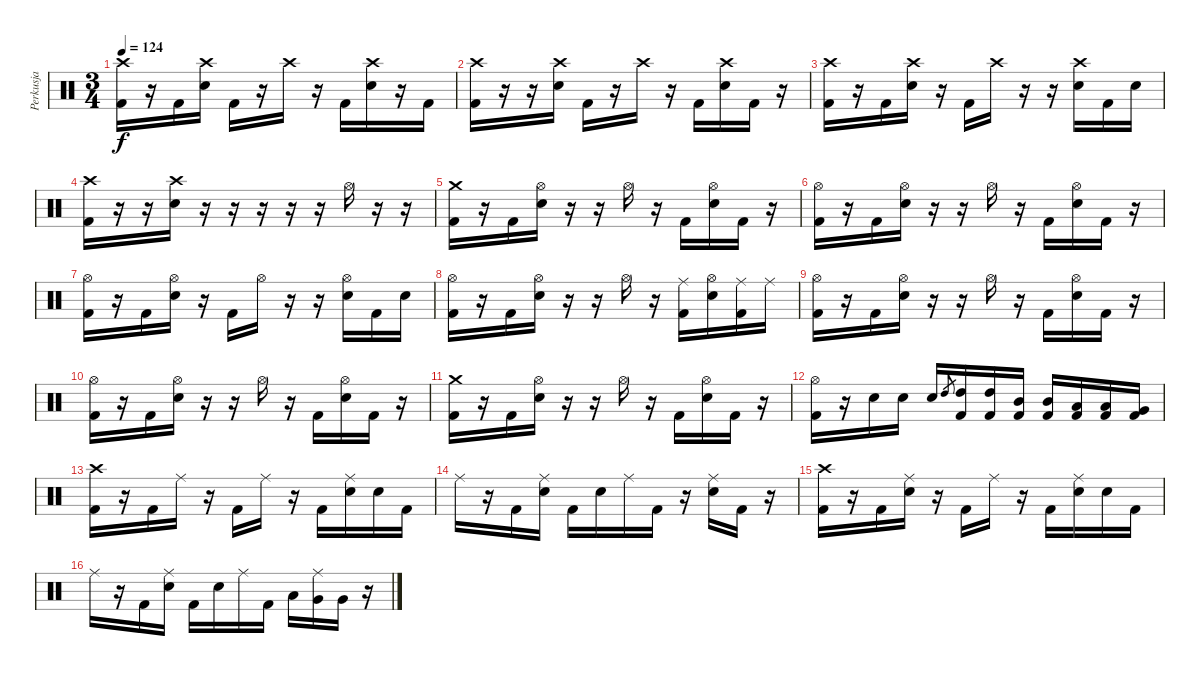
\track ("Perkusja" "Perkusja") {instrument percussion}
\staff {score}
\articulation defaults
\ts (3 4)
\tempo 124
\clef neutral
\ks c
("Kick (hit) 2" "Crash high (hit)").16{dy f} r.16 "Kick (hit) 2".16 ("Crash high (hit)" "Electric Snare (hit)").16 "Kick (hit) 2".16 r.16 "Crash high (hit)".16 r.16 "Kick (hit) 2".16 ("Crash high (hit)" "Electric Snare (hit)").16 r.16 "Kick (hit) 2".16 |
("Kick (hit) 2" "Crash high (hit)").16 r.16 r.16 ("Crash high (hit)" "Electric Snare (hit)").16 "Kick (hit) 2".16 r.16 "Crash high (hit)".16 r.16 "Kick (hit) 2".16 ("Crash high (hit)" "Electric Snare (hit)").16 "Kick (hit) 2".16 r.16 |
("Kick (hit) 2" "Crash high (hit)").16 r.16 "Kick (hit) 2".16 ("Crash high (hit)" "Electric Snare (hit)").16 r.16 "Kick (hit) 2".16 "Crash high (hit)".16 r.16 r.16 ("Crash high (hit)" "Electric Snare (hit)").16 "Kick (hit) 2".16 "Electric Snare (hit)".16 |
("Kick (hit) 2" "Crash high (hit)").16 r.16 r.16 ("Crash high (hit)" "Electric Snare (hit)").16 r.16 r.16 r.16 r.16 r.16 "Hi-Hat (open)".16 r.16 r.16 |
("Kick (hit) 2" "Crash medium (hit)").16 r.16 "Kick (hit) 2".16 ("Hi-Hat (open)" "Electric Snare (hit)").16 r.16 r.16 "Hi-Hat (open)".16 r.16 "Kick (hit) 2".16 ("Hi-Hat (open)" "Electric Snare (hit)").16 "Kick (hit) 2".16 r.16 |
("Hi-Hat (open)" "Kick (hit) 2").16 r.16 "Kick (hit) 2".16 ("Hi-Hat (open)" "Electric Snare (hit)").16 r.16 r.16 "Hi-Hat (open)".16 r.16 "Kick (hit) 2".16 ("Hi-Hat (open)" "Electric Snare (hit)").16 "Kick (hit) 2".16 r.16 |
("Hi-Hat (open)" "Kick (hit) 2").16 r.16 "Kick (hit) 2".16 ("Hi-Hat (open)" "Electric Snare (hit)").16 r.16 "Kick (hit) 2".16 "Hi-Hat (open)".16 r.16 r.16 ("Hi-Hat (open)" "Electric Snare (hit)").16 "Kick (hit) 2".16 "Electric Snare (hit)".16 |
("Hi-Hat (open)" "Kick (hit) 2").16 r.16 "Kick (hit) 2".16 ("Hi-Hat (open)" "Electric Snare (hit)").16 r.16 r.16 "Hi-Hat (open)".16 r.16 ("Ride (middle)" "Kick (hit) 2").16 ("Hi-Hat (open)" "Electric Snare (hit)").16 ("Ride (middle)" "Kick (hit) 2").16 "Ride (middle)".16 |
("Kick (hit) 2" "Hi-Hat (open)").16 r.16 "Kick (hit) 2".16 ("Hi-Hat (open)" "Electric Snare (hit)").16 r.16 r.16 "Hi-Hat (open)".16 r.16 "Kick (hit) 2".16 ("Hi-Hat (open)" "Electric Snare (hit)").16 "Kick (hit) 2".16 r.16 |
("Hi-Hat (open)" "Kick (hit) 2").16 r.16 "Kick (hit) 2".16 ("Hi-Hat (open)" "Electric Snare (hit)").16 r.16 r.16 "Hi-Hat (open)".16 r.16 "Kick (hit) 2".16 ("Hi-Hat (open)" "Electric Snare (hit)").16 "Kick (hit) 2".16 r.16 |
("Kick (hit) 2" "Crash medium (hit)").16 r.16 "Kick (hit) 2".16 ("Hi-Hat (open)" "Electric Snare (hit)").16 r.16 r.16 "Hi-Hat (open)".16 r.16 "Kick (hit) 2".16 ("Hi-Hat (open)" "Electric Snare (hit)").16 "Kick (hit) 2".16 r.16 |
("Hi-Hat (open)" "Kick (hit) 2").16 r.16 "Electric Snare (hit)".16 "Electric Snare (hit)".16 "Electric Snare (hit)".16 "High Tom (hit)".8{gr} ("Kick (hit) 2" "High Tom (hit)").16 ("Kick (hit) 2" "High Tom (hit)").16 ("Kick (hit) 2" "Mid Tom (hit)").16 ("Kick (hit) 2" "Mid Tom (hit)").16 ("Kick (hit) 2" "Low Tom (hit)").16 ("Kick (hit) 2" "Low Tom (hit)").16 ("Kick (hit) 2" "Very Low Tom (hit)").16 |
("Crash high (hit)" "Kick (hit) 2").16 r.16 "Kick (hit) 2".16 "Ride (middle)".16 r.16 "Kick (hit) 2".16 "Ride (middle)".16 r.16 "Kick (hit) 2".16 ("Ride (middle)" "Electric Snare (hit)").16 "Electric Snare (hit)".16 "Kick (hit) 2".16 |
"Ride (middle)".16 r.16 "Kick (hit) 2".16 ("Ride (middle)" "Electric Snare (hit)").16 "Kick (hit) 2".16 "Electric Snare (hit)".16 "Ride (middle)".16 "Kick (hit) 2".16 r.16 ("Ride (middle)" "Electric Snare (hit)").16 "Kick (hit) 2".16 r.16 |
("Crash high (hit)" "Kick (hit) 2").16 r.16 "Kick (hit) 2".16 ("Ride (middle)" "Electric Snare (hit)").16 r.16 "Kick (hit) 2".16 "Ride (middle)".16 r.16 "Kick (hit) 2".16 ("Ride (middle)" "Electric Snare (hit)").16 "Electric Snare (hit)".16 "Kick (hit) 2".16 |
"Ride (middle)".16 r.16 "Kick (hit) 2".16 ("Ride (middle)" "Electric Snare (hit)").16 "Kick (hit) 2".16 "Electric Snare (hit)".16 "Ride (middle)".16 "Kick (hit) 2".16 "Low Tom (hit)".16 ("Ride (middle)" "Very Low Tom (hit)").16 "Very Low Tom (hit)".16 r.16
